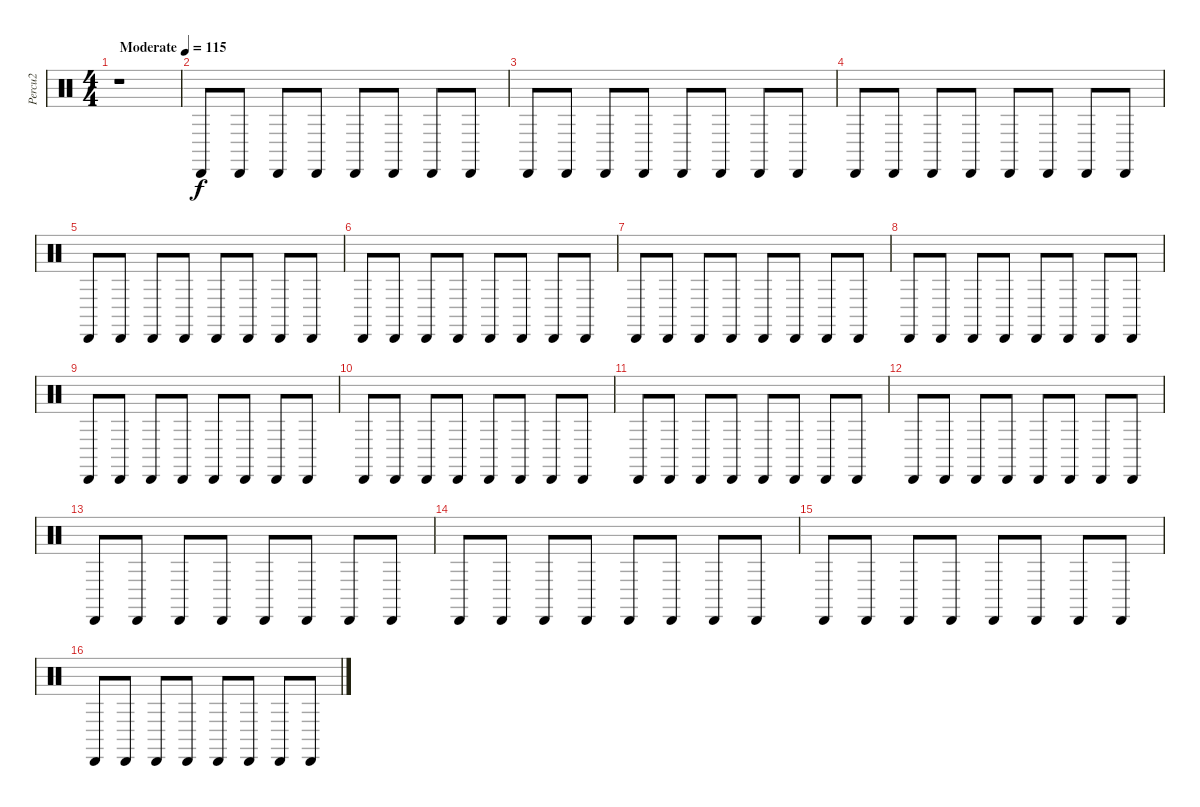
\track ("Percu2" "Percu2") {instrument percussion}
\staff {score}
\articulation defaults
\ts (4 4)
\tempo (115 "Moderate")
\clef neutral
\ks c
r.1{dy f} |
"Cabasa (hit)".8 "Cabasa (hit)".8 "Cabasa (hit)".8 "Cabasa (hit)".8 "Cabasa (hit)".8 "Cabasa (hit)".8 "Cabasa (hit)".8 "Cabasa (hit)".8 |
"Cabasa (hit)".8 "Cabasa (hit)".8 "Cabasa (hit)".8 "Cabasa (hit)".8 "Cabasa (hit)".8 "Cabasa (hit)".8 "Cabasa (hit)".8 "Cabasa (hit)".8 |
"Cabasa (hit)".8 "Cabasa (hit)".8 "Cabasa (hit)".8 "Cabasa (hit)".8 "Cabasa (hit)".8 "Cabasa (hit)".8 "Cabasa (hit)".8 "Cabasa (hit)".8 |
"Cabasa (hit)".8 "Cabasa (hit)".8 "Cabasa (hit)".8 "Cabasa (hit)".8 "Cabasa (hit)".8 "Cabasa (hit)".8 "Cabasa (hit)".8 "Cabasa (hit)".8 |
"Cabasa (hit)".8 "Cabasa (hit)".8 "Cabasa (hit)".8 "Cabasa (hit)".8 "Cabasa (hit)".8 "Cabasa (hit)".8 "Cabasa (hit)".8 "Cabasa (hit)".8 |
"Cabasa (hit)".8 "Cabasa (hit)".8 "Cabasa (hit)".8 "Cabasa (hit)".8 "Cabasa (hit)".8 "Cabasa (hit)".8 "Cabasa (hit)".8 "Cabasa (hit)".8 |
"Cabasa (hit)".8 "Cabasa (hit)".8 "Cabasa (hit)".8 "Cabasa (hit)".8 "Cabasa (hit)".8 "Cabasa (hit)".8 "Cabasa (hit)".8 "Cabasa (hit)".8 |
"Cabasa (hit)".8 "Cabasa (hit)".8 "Cabasa (hit)".8 "Cabasa (hit)".8 "Cabasa (hit)".8 "Cabasa (hit)".8 "Cabasa (hit)".8 "Cabasa (hit)".8 |
"Cabasa (hit)".8 "Cabasa (hit)".8 "Cabasa (hit)".8 "Cabasa (hit)".8 "Cabasa (hit)".8 "Cabasa (hit)".8 "Cabasa (hit)".8 "Cabasa (hit)".8 |
"Cabasa (hit)".8 "Cabasa (hit)".8 "Cabasa (hit)".8 "Cabasa (hit)".8 "Cabasa (hit)".8 "Cabasa (hit)".8 "Cabasa (hit)".8 "Cabasa (hit)".8 |
"Cabasa (hit)".8 "Cabasa (hit)".8 "Cabasa (hit)".8 "Cabasa (hit)".8 "Cabasa (hit)".8 "Cabasa (hit)".8 "Cabasa (hit)".8 "Cabasa (hit)".8 |
"Cabasa (hit)".8 "Cabasa (hit)".8 "Cabasa (hit)".8 "Cabasa (hit)".8 "Cabasa (hit)".8 "Cabasa (hit)".8 "Cabasa (hit)".8 "Cabasa (hit)".8 |
"Cabasa (hit)".8 "Cabasa (hit)".8 "Cabasa (hit)".8 "Cabasa (hit)".8 "Cabasa (hit)".8 "Cabasa (hit)".8 "Cabasa (hit)".8 "Cabasa (hit)".8 |
"Cabasa (hit)".8 "Cabasa (hit)".8 "Cabasa (hit)".8 "Cabasa (hit)".8 "Cabasa (hit)".8 "Cabasa (hit)".8 "Cabasa (hit)".8 "Cabasa (hit)".8 |
"Cabasa (hit)".8 "Cabasa (hit)".8 "Cabasa (hit)".8 "Cabasa (hit)".8 "Cabasa (hit)".8 "Cabasa (hit)".8 "Cabasa (hit)".8 "Cabasa (hit)".8
